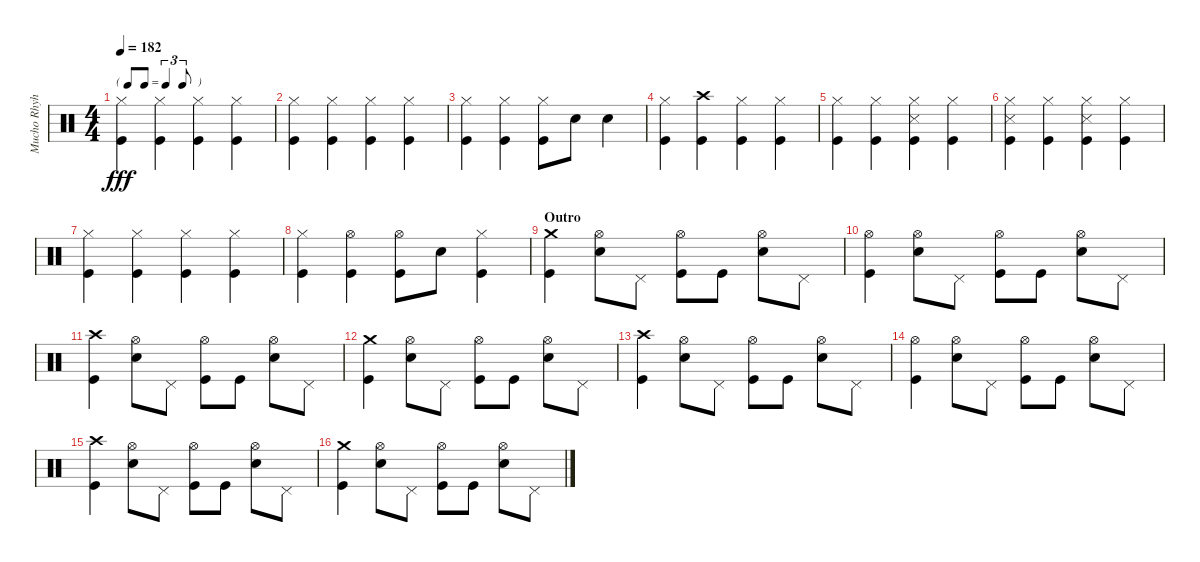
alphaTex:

\track ("Mucho Rhyhtm" "Mucho Rhyh") {instrument percussion}
\staff {score}
\articulation defaults
\ts (4 4)
\tf triplet8th
\tempo 182
\clef neutral
\ks c
("Hi-Hat (closed)" "Kick (hit)").4{dy fff} ("Hi-Hat (closed)" "Kick (hit)").4 ("Hi-Hat (closed)" "Kick (hit)").4 ("Hi-Hat (closed)" "Kick (hit)").4 |
("Hi-Hat (closed)" "Kick (hit)").4 ("Hi-Hat (closed)" "Kick (hit)").4 ("Hi-Hat (closed)" "Kick (hit)").4 ("Hi-Hat (closed)" "Kick (hit)").4 |
("Hi-Hat (closed)" "Kick (hit)").4 ("Hi-Hat (closed)" "Kick (hit)").4 ("Hi-Hat (closed)" "Kick (hit)").8 "Snare (hit) 2".8 "Snare (hit) 2".4 |
("Hi-Hat (closed)" "Kick (hit)").4 ("Crash high (hit)" "Kick (hit)").4 ("Hi-Hat (closed)" "Kick (hit)").4 ("Hi-Hat (closed)" "Kick (hit)").4 |
("Hi-Hat (closed)" "Kick (hit)").4 ("Hi-Hat (closed)" "Kick (hit)").4 ("Hi-Hat (closed)" "Snare (side stick) 3" "Kick (hit)").4 ("Hi-Hat (closed)" "Kick (hit)").4 |
("Hi-Hat (closed)" "Snare (side stick) 3" "Kick (hit)").4 ("Hi-Hat (closed)" "Kick (hit)").4 ("Hi-Hat (closed)" "Snare (side stick) 3" "Kick (hit)").4 ("Hi-Hat (closed)" "Kick (hit)").4 |
("Hi-Hat (closed)" "Kick (hit)").4 ("Hi-Hat (closed)" "Kick (hit)").4 ("Hi-Hat (closed)" "Kick (hit)").4 ("Hi-Hat (closed)" "Kick (hit)").4 |
("Hi-Hat (closed)" "Kick (hit)").4 ("Hi-Hat (open)" "Kick (hit)").4 ("Hi-Hat (open)" "Kick (hit)").8 "Snare (hit) 2".8 ("Hi-Hat (closed)" "Kick (hit)").4 |
\section ("" "Outro")
("Crash medium (hit)" "Kick (hit)").4 ("Hi-Hat (open)" "Snare (hit) 2").8 "Pedal Hi-Hat (hit)".8 ("Hi-Hat (open)" "Kick (hit)").8 "Kick (hit)".8 ("Hi-Hat (open)" "Snare (hit) 2").8 "Pedal Hi-Hat (hit)".8 |
("Hi-Hat (open)" "Kick (hit)").4 ("Hi-Hat (open)" "Snare (hit) 2").8 "Pedal Hi-Hat (hit)".8 ("Hi-Hat (open)" "Kick (hit)").8 "Kick (hit)".8 ("Hi-Hat (open)" "Snare (hit) 2").8 "Pedal Hi-Hat (hit)".8 |
("Crash high (hit)" "Kick (hit)").4 ("Hi-Hat (open)" "Snare (hit) 2").8 "Pedal Hi-Hat (hit)".8 ("Hi-Hat (open)" "Kick (hit)").8 "Kick (hit)".8 ("Hi-Hat (open)" "Snare (hit) 2").8 "Pedal Hi-Hat (hit)".8 |
("Crash medium (hit)" "Kick (hit)").4 ("Hi-Hat (open)" "Snare (hit) 2").8 "Pedal Hi-Hat (hit)".8 ("Hi-Hat (open)" "Kick (hit)").8 "Kick (hit)".8 ("Hi-Hat (open)" "Snare (hit) 2").8 "Pedal Hi-Hat (hit)".8 |
("Crash high (hit)" "Kick (hit)").4 ("Hi-Hat (open)" "Snare (hit) 2").8 "Pedal Hi-Hat (hit)".8 ("Hi-Hat (open)" "Kick (hit)").8 "Kick (hit)".8 ("Hi-Hat (open)" "Snare (hit) 2").8 "Pedal Hi-Hat (hit)".8 |
("Hi-Hat (open)" "Kick (hit)").4 ("Hi-Hat (open)" "Snare (hit) 2").8 "Pedal Hi-Hat (hit)".8 ("Hi-Hat (open)" "Kick (hit)").8 "Kick (hit)".8 ("Hi-Hat (open)" "Snare (hit) 2").8 "Pedal Hi-Hat (hit)".8 |
("Crash high (hit)" "Kick (hit)").4 ("Hi-Hat (open)" "Snare (hit) 2").8 "Pedal Hi-Hat (hit)".8 ("Hi-Hat (open)" "Kick (hit)").8 "Kick (hit)".8 ("Hi-Hat (open)" "Snare (hit) 2").8 "Pedal Hi-Hat (hit)".8 |
("Crash medium (hit)" "Kick (hit)").4 ("Hi-Hat (open)" "Snare (hit) 2").8 "Pedal Hi-Hat (hit)".8 ("Hi-Hat (open)" "Kick (hit)").8 "Kick (hit)".8 ("Hi-Hat (open)" "Snare (hit) 2").8 "Pedal Hi-Hat (hit)".8
